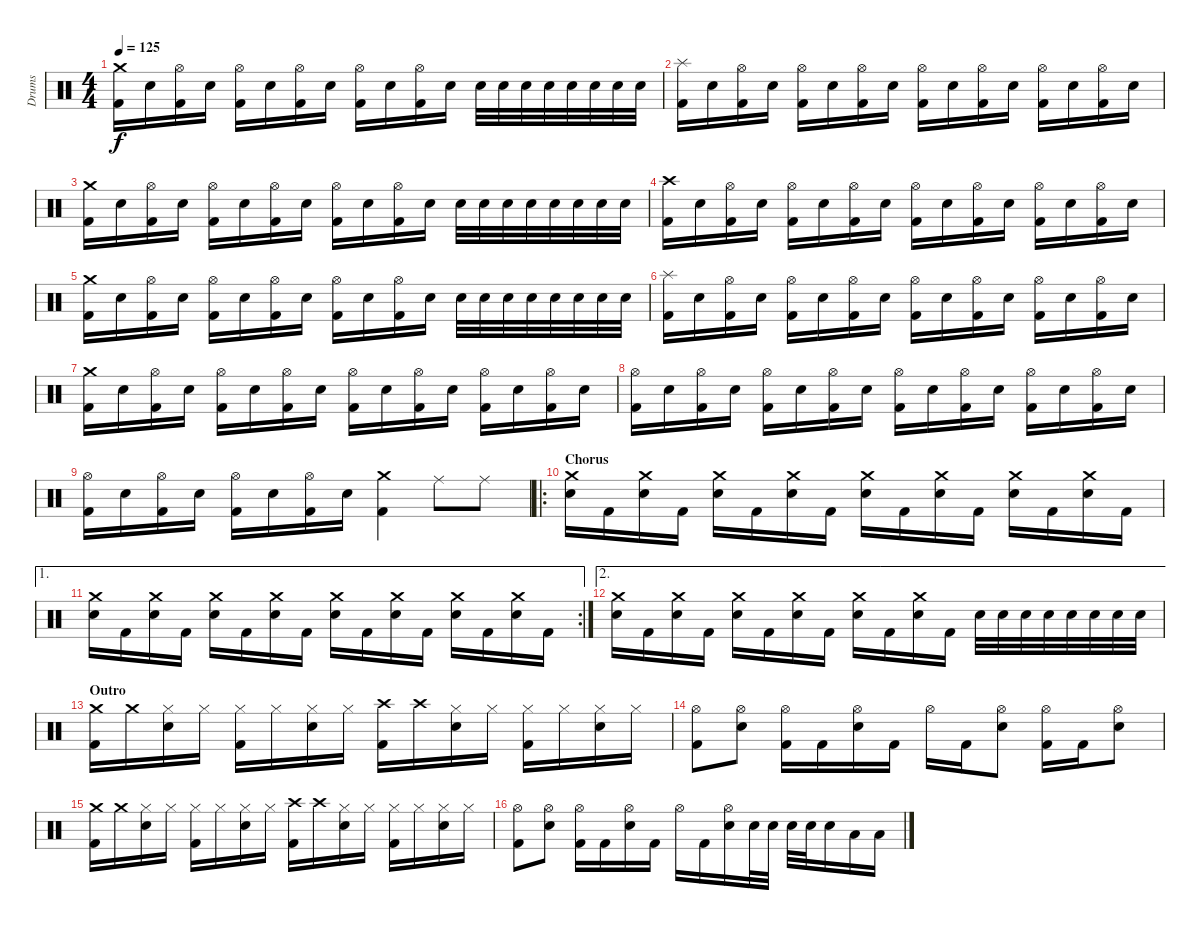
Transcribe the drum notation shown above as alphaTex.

\track ("Drums" "Drums") {instrument percussion}
\staff {score}
\articulation defaults
\ts (4 4)
\tempo 125
\clef neutral
\ks c
("Crash medium (hit)" "Kick (hit) 2").16{dy f} "Electric Snare (hit)".16 ("Hi-Hat (open)" "Kick (hit) 2").16 "Electric Snare (hit)".16 ("Hi-Hat (open)" "Kick (hit) 2").16 "Electric Snare (hit)".16 ("Hi-Hat (open)" "Kick (hit) 2").16 "Electric Snare (hit)".16 ("Hi-Hat (open)" "Kick (hit) 2").16 "Electric Snare (hit)".16 ("Hi-Hat (open)" "Kick (hit) 2").16 "Electric Snare (hit)".16 "Electric Snare (hit)".32 "Electric Snare (hit)".32 "Electric Snare (hit)".32 "Electric Snare (hit)".32 "Electric Snare (hit)".32 "Electric Snare (hit)".32 "Electric Snare (hit)".32 "Electric Snare (hit)".32 |
("Splash (hit)" "Kick (hit) 2").16 "Electric Snare (hit)".16 ("Hi-Hat (open)" "Kick (hit) 2").16 "Electric Snare (hit)".16 ("Hi-Hat (open)" "Kick (hit) 2").16 "Electric Snare (hit)".16 ("Hi-Hat (open)" "Kick (hit) 2").16 "Electric Snare (hit)".16 ("Hi-Hat (open)" "Kick (hit) 2").16 "Electric Snare (hit)".16 ("Hi-Hat (open)" "Kick (hit) 2").16 "Electric Snare (hit)".16 ("Hi-Hat (open)" "Kick (hit) 2").16 "Electric Snare (hit)".16 ("Hi-Hat (open)" "Kick (hit) 2").16 "Electric Snare (hit)".16 |
("Crash medium (hit)" "Kick (hit) 2").16 "Electric Snare (hit)".16 ("Hi-Hat (open)" "Kick (hit) 2").16 "Electric Snare (hit)".16 ("Hi-Hat (open)" "Kick (hit) 2").16 "Electric Snare (hit)".16 ("Hi-Hat (open)" "Kick (hit) 2").16 "Electric Snare (hit)".16 ("Hi-Hat (open)" "Kick (hit) 2").16 "Electric Snare (hit)".16 ("Hi-Hat (open)" "Kick (hit) 2").16 "Electric Snare (hit)".16 "Electric Snare (hit)".32 "Electric Snare (hit)".32 "Electric Snare (hit)".32 "Electric Snare (hit)".32 "Electric Snare (hit)".32 "Electric Snare (hit)".32 "Electric Snare (hit)".32 "Electric Snare (hit)".32 |
("Crash high (hit)" "Kick (hit) 2").16 "Electric Snare (hit)".16 ("Hi-Hat (open)" "Kick (hit) 2").16 "Electric Snare (hit)".16 ("Hi-Hat (open)" "Kick (hit) 2").16 "Electric Snare (hit)".16 ("Hi-Hat (open)" "Kick (hit) 2").16 "Electric Snare (hit)".16 ("Hi-Hat (open)" "Kick (hit) 2").16 "Electric Snare (hit)".16 ("Hi-Hat (open)" "Kick (hit) 2").16 "Electric Snare (hit)".16 ("Hi-Hat (open)" "Kick (hit) 2").16 "Electric Snare (hit)".16 ("Hi-Hat (open)" "Kick (hit) 2").16 "Electric Snare (hit)".16 |
("Crash medium (hit)" "Kick (hit) 2").16 "Electric Snare (hit)".16 ("Hi-Hat (open)" "Kick (hit) 2").16 "Electric Snare (hit)".16 ("Hi-Hat (open)" "Kick (hit) 2").16 "Electric Snare (hit)".16 ("Hi-Hat (open)" "Kick (hit) 2").16 "Electric Snare (hit)".16 ("Hi-Hat (open)" "Kick (hit) 2").16 "Electric Snare (hit)".16 ("Hi-Hat (open)" "Kick (hit) 2").16 "Electric Snare (hit)".16 "Electric Snare (hit)".32 "Electric Snare (hit)".32 "Electric Snare (hit)".32 "Electric Snare (hit)".32 "Electric Snare (hit)".32 "Electric Snare (hit)".32 "Electric Snare (hit)".32 "Electric Snare (hit)".32 |
("Splash (hit)" "Kick (hit) 2").16 "Electric Snare (hit)".16 ("Hi-Hat (open)" "Kick (hit) 2").16 "Electric Snare (hit)".16 ("Hi-Hat (open)" "Kick (hit) 2").16 "Electric Snare (hit)".16 ("Hi-Hat (open)" "Kick (hit) 2").16 "Electric Snare (hit)".16 ("Hi-Hat (open)" "Kick (hit) 2").16 "Electric Snare (hit)".16 ("Hi-Hat (open)" "Kick (hit) 2").16 "Electric Snare (hit)".16 ("Hi-Hat (open)" "Kick (hit) 2").16 "Electric Snare (hit)".16 ("Hi-Hat (open)" "Kick (hit) 2").16 "Electric Snare (hit)".16 |
("Crash medium (hit)" "Kick (hit) 2").16 "Electric Snare (hit)".16 ("Hi-Hat (open)" "Kick (hit) 2").16 "Electric Snare (hit)".16 ("Hi-Hat (open)" "Kick (hit) 2").16 "Electric Snare (hit)".16 ("Hi-Hat (open)" "Kick (hit) 2").16 "Electric Snare (hit)".16 ("Hi-Hat (open)" "Kick (hit) 2").16 "Electric Snare (hit)".16 ("Hi-Hat (open)" "Kick (hit) 2").16 "Electric Snare (hit)".16 ("Hi-Hat (open)" "Kick (hit) 2").16 "Electric Snare (hit)".16 ("Hi-Hat (open)" "Kick (hit) 2").16 "Electric Snare (hit)".16 |
("Hi-Hat (open)" "Kick (hit) 2").16 "Electric Snare (hit)".16 ("Hi-Hat (open)" "Kick (hit) 2").16 "Electric Snare (hit)".16 ("Hi-Hat (open)" "Kick (hit) 2").16 "Electric Snare (hit)".16 ("Hi-Hat (open)" "Kick (hit) 2").16 "Electric Snare (hit)".16 ("Hi-Hat (open)" "Kick (hit) 2").16 "Electric Snare (hit)".16 ("Hi-Hat (open)" "Kick (hit) 2").16 "Electric Snare (hit)".16 ("Hi-Hat (open)" "Kick (hit) 2").16 "Electric Snare (hit)".16 ("Hi-Hat (open)" "Kick (hit) 2").16 "Electric Snare (hit)".16 |
("Hi-Hat (open)" "Kick (hit) 2").16 "Electric Snare (hit)".16 ("Hi-Hat (open)" "Kick (hit) 2").16 "Electric Snare (hit)".16 ("Hi-Hat (open)" "Kick (hit) 2").16 "Electric Snare (hit)".16 ("Hi-Hat (open)" "Kick (hit) 2").16 "Electric Snare (hit)".16 ("Crash medium (hit)" "Kick (hit) 2").4 "Ride (middle)".8 "Ride (middle)".8 |
\ro
\section ("" "Chorus")
("Crash medium (hit)" "Electric Snare (hit)").16 "Kick (hit) 2".16 ("Crash medium (hit)" "Electric Snare (hit)").16 "Kick (hit) 2".16 ("Crash medium (hit)" "Electric Snare (hit)").16 "Kick (hit) 2".16 ("Crash medium (hit)" "Electric Snare (hit)").16 "Kick (hit) 2".16 ("Crash medium (hit)" "Electric Snare (hit)").16 "Kick (hit) 2".16 ("Crash medium (hit)" "Electric Snare (hit)").16 "Kick (hit) 2".16 ("Crash medium (hit)" "Electric Snare (hit)").16 "Kick (hit) 2".16 ("Crash medium (hit)" "Electric Snare (hit)").16 "Kick (hit) 2".16 |
\ae 1
\rc 2
("Crash medium (hit)" "Electric Snare (hit)").16 "Kick (hit) 2".16 ("Crash medium (hit)" "Electric Snare (hit)").16 "Kick (hit) 2".16 ("Crash medium (hit)" "Electric Snare (hit)").16 "Kick (hit) 2".16 ("Crash medium (hit)" "Electric Snare (hit)").16 "Kick (hit) 2".16 ("Crash medium (hit)" "Electric Snare (hit)").16 "Kick (hit) 2".16 ("Crash medium (hit)" "Electric Snare (hit)").16 "Kick (hit) 2".16 ("Crash medium (hit)" "Electric Snare (hit)").16 "Kick (hit) 2".16 ("Crash medium (hit)" "Electric Snare (hit)").16 "Kick (hit) 2".16 |
\ae 2
("Crash medium (hit)" "Electric Snare (hit)").16 "Kick (hit) 2".16 ("Crash medium (hit)" "Electric Snare (hit)").16 "Kick (hit) 2".16 ("Crash medium (hit)" "Electric Snare (hit)").16 "Kick (hit) 2".16 ("Crash medium (hit)" "Electric Snare (hit)").16 "Kick (hit) 2".16 ("Crash medium (hit)" "Electric Snare (hit)").16 "Kick (hit) 2".16 ("Crash medium (hit)" "Electric Snare (hit)").16 "Kick (hit) 2".16 "Electric Snare (hit)".32 "Electric Snare (hit)".32 "Electric Snare (hit)".32 "Electric Snare (hit)".32 "Electric Snare (hit)".32 "Electric Snare (hit)".32 "Electric Snare (hit)".32 "Electric Snare (hit)".32 |
\section ("" "Outro")
("Crash medium (hit)" "Kick (hit) 2").16 "Crash medium (hit)".16 ("Hi-Hat (closed)" "Electric Snare (hit)").16 "Hi-Hat (closed)".16 ("Hi-Hat (closed)" "Kick (hit) 2").16 "Hi-Hat (closed)".16 ("Hi-Hat (closed)" "Electric Snare (hit)").16 "Hi-Hat (closed)".16 ("Crash high (hit)" "Kick (hit) 2").16 "Crash high (hit)".16 ("Hi-Hat (closed)" "Electric Snare (hit)").16 "Hi-Hat (closed)".16 ("Hi-Hat (closed)" "Kick (hit) 2").16 "Hi-Hat (closed)".16 ("Hi-Hat (closed)" "Electric Snare (hit)").16 "Hi-Hat (closed)".16 |
("Hi-Hat (open)" "Kick (hit) 2").8 ("Hi-Hat (open)" "Electric Snare (hit)").8 ("Hi-Hat (open)" "Kick (hit) 2").16 "Kick (hit) 2".16 ("Hi-Hat (open)" "Electric Snare (hit)").16 "Kick (hit) 2".16 "Hi-Hat (open)".16 "Kick (hit) 2".16 ("Hi-Hat (open)" "Electric Snare (hit)").8 ("Hi-Hat (open)" "Kick (hit) 2").16 "Kick (hit) 2".16 ("Hi-Hat (open)" "Electric Snare (hit)").8 |
("Crash medium (hit)" "Kick (hit) 2").16 "Crash medium (hit)".16 ("Hi-Hat (closed)" "Electric Snare (hit)").16 "Hi-Hat (closed)".16 ("Hi-Hat (closed)" "Kick (hit) 2").16 "Hi-Hat (closed)".16 ("Hi-Hat (closed)" "Electric Snare (hit)").16 "Hi-Hat (closed)".16 ("Crash high (hit)" "Kick (hit) 2").16 "Crash high (hit)".16 ("Hi-Hat (closed)" "Electric Snare (hit)").16 "Hi-Hat (closed)".16 ("Hi-Hat (closed)" "Kick (hit) 2").16 "Hi-Hat (closed)".16 ("Hi-Hat (closed)" "Electric Snare (hit)").16 "Hi-Hat (closed)".16 |
("Hi-Hat (open)" "Kick (hit) 2").8 ("Hi-Hat (open)" "Electric Snare (hit)").8 ("Hi-Hat (open)" "Kick (hit) 2").16 "Kick (hit) 2".16 ("Hi-Hat (open)" "Electric Snare (hit)").16 "Kick (hit) 2".16 "Hi-Hat (open)".16 "Kick (hit) 2".16 ("Hi-Hat (open)" "Electric Snare (hit)").16 "Electric Snare (hit)".32 "Electric Snare (hit)".32 "Electric Snare (hit)".32 "Electric Snare (hit)".32 "Electric Snare (hit)".16 "Low Tom (hit)".16 "Low Tom (hit)".16
